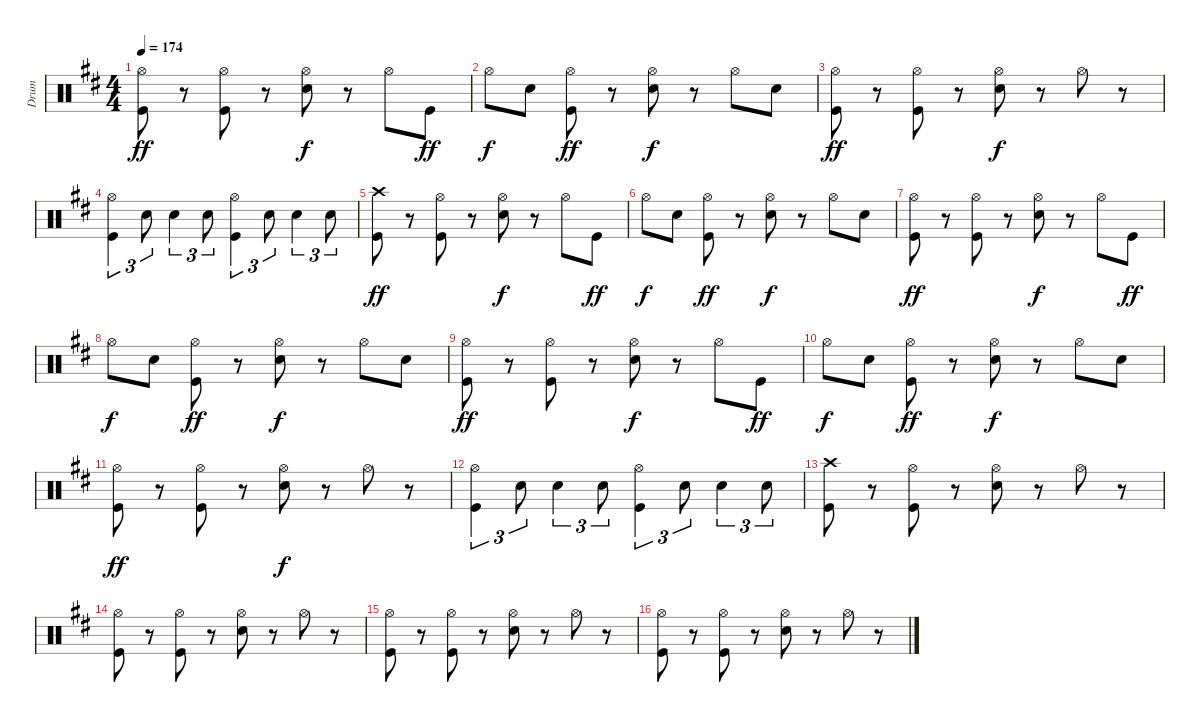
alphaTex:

\track ("Drum" "Drum") {instrument percussion}
\staff {score}
\articulation defaults
\ts (4 4)
\tempo 174
\clef neutral
\ks d
("Hi-Hat (open)" "Kick (hit)").8{dy ff} r.8 ("Hi-Hat (open)" "Kick (hit)").8 r.8 ("Hi-Hat (open)" "Snare (hit) 2").8{dy f} r.8 "Hi-Hat (open)".8 "Kick (hit)".8{dy ff} |
"Hi-Hat (open)".8{dy f} "Snare (hit) 2".8 ("Hi-Hat (open)" "Kick (hit)").8{dy ff} r.8 ("Hi-Hat (open)" "Snare (hit) 2").8{dy f} r.8 "Hi-Hat (open)".8 "Snare (hit) 2".8 |
("Hi-Hat (open)" "Kick (hit)").8{dy ff} r.8 ("Hi-Hat (open)" "Kick (hit)").8 r.8 ("Hi-Hat (open)" "Snare (hit) 2").8{dy f} r.8 "Hi-Hat (open)".8 r.8 |
("Hi-Hat (open)" "Kick (hit)").4{tu (3 2)} "Snare (hit) 2".8{tu (3 2)} "Snare (hit) 2".4{tu (3 2)} "Snare (hit) 2".8{tu (3 2)} ("Hi-Hat (open)" "Kick (hit)").4{tu (3 2)} "Snare (hit) 2".8{tu (3 2)} "Snare (hit) 2".4{tu (3 2)} "Snare (hit) 2".8{tu (3 2)} |
("Crash high (hit)" "Kick (hit)").8{dy ff} r.8 ("Hi-Hat (open)" "Kick (hit)").8 r.8 ("Hi-Hat (open)" "Snare (hit) 2").8{dy f} r.8 "Hi-Hat (open)".8 "Kick (hit)".8{dy ff} |
"Hi-Hat (open)".8{dy f} "Snare (hit) 2".8 ("Hi-Hat (open)" "Kick (hit)").8{dy ff} r.8 ("Hi-Hat (open)" "Snare (hit) 2").8{dy f} r.8 "Hi-Hat (open)".8 "Snare (hit) 2".8 |
("Hi-Hat (open)" "Kick (hit)").8{dy ff} r.8 ("Hi-Hat (open)" "Kick (hit)").8 r.8 ("Hi-Hat (open)" "Snare (hit) 2").8{dy f} r.8 "Hi-Hat (open)".8 "Kick (hit)".8{dy ff} |
"Hi-Hat (open)".8{dy f} "Snare (hit) 2".8 ("Hi-Hat (open)" "Kick (hit)").8{dy ff} r.8 ("Hi-Hat (open)" "Snare (hit) 2").8{dy f} r.8 "Hi-Hat (open)".8 "Snare (hit) 2".8 |
("Hi-Hat (open)" "Kick (hit)").8{dy ff} r.8 ("Hi-Hat (open)" "Kick (hit)").8 r.8 ("Hi-Hat (open)" "Snare (hit) 2").8{dy f} r.8 "Hi-Hat (open)".8 "Kick (hit)".8{dy ff} |
"Hi-Hat (open)".8{dy f} "Snare (hit) 2".8 ("Hi-Hat (open)" "Kick (hit)").8{dy ff} r.8 ("Hi-Hat (open)" "Snare (hit) 2").8{dy f} r.8 "Hi-Hat (open)".8 "Snare (hit) 2".8 |
("Hi-Hat (open)" "Kick (hit)").8{dy ff} r.8 ("Hi-Hat (open)" "Kick (hit)").8 r.8 ("Hi-Hat (open)" "Snare (hit) 2").8{dy f} r.8 "Hi-Hat (open)".8 r.8 |
("Hi-Hat (open)" "Kick (hit)").4{tu (3 2)} "Snare (hit) 2".8{tu (3 2)} "Snare (hit) 2".4{tu (3 2)} "Snare (hit) 2".8{tu (3 2)} ("Hi-Hat (open)" "Kick (hit)").4{tu (3 2)} "Snare (hit) 2".8{tu (3 2)} "Snare (hit) 2".4{tu (3 2)} "Snare (hit) 2".8{tu (3 2)} |
("Crash high (hit)" "Kick (hit)").8 r.8 ("Hi-Hat (open)" "Kick (hit)").8 r.8 ("Hi-Hat (open)" "Electric Snare (hit)").8 r.8 "Hi-Hat (open)".8 r.8 |
("Hi-Hat (open)" "Kick (hit)").8 r.8 ("Hi-Hat (open)" "Kick (hit)").8 r.8 ("Hi-Hat (open)" "Electric Snare (hit)").8 r.8 "Hi-Hat (open)".8 r.8 |
("Hi-Hat (open)" "Kick (hit)").8 r.8 ("Hi-Hat (open)" "Kick (hit)").8 r.8 ("Hi-Hat (open)" "Electric Snare (hit)").8 r.8 "Hi-Hat (open)".8 r.8 |
("Hi-Hat (open)" "Kick (hit)").8 r.8 ("Hi-Hat (open)" "Kick (hit)").8 r.8 ("Hi-Hat (open)" "Electric Snare (hit)").8 r.8 "Hi-Hat (open)".8 r.8
